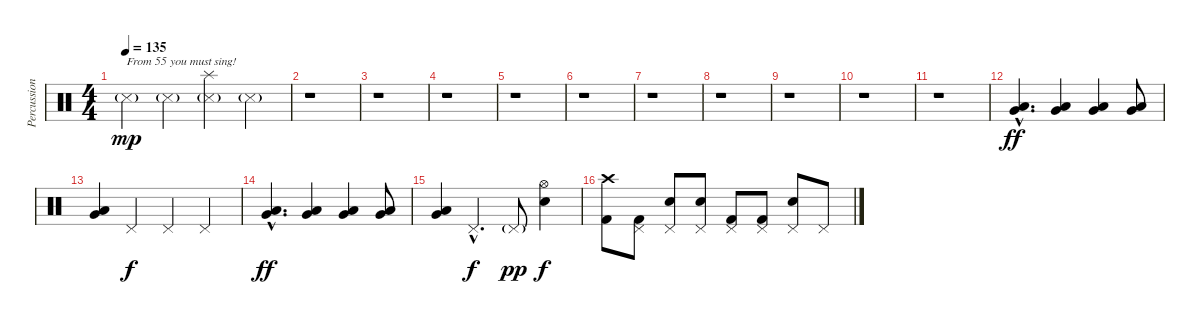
\track ("Percussion" "Percussion") {instrument percussion}
\staff {score}
\articulation defaults
\ts (4 4)
\tempo 135
\clef neutral
\ks c "Snare (side stick) 3"{g}.4{txt "From 55 you must sing!" dy mp} "Snare (side stick) 3"{g}.4
("Splash (hit)" "Snare (side stick) 3"{g}).4 "Snare (side stick) 3"{g}.4 |
r.1 |
r.1 |
r.1 |
r.1 |
r.1 |
r.1 |
r.1 |
r.1 |
r.1 |
r.1 |
("Low Tom (hit)"{hac} "Very Low Tom (hit)"{hac}).4{d dy ff} ("Low Tom (hit)" "Very Low Tom (hit)").4 ("Low Tom (hit)" "Very Low Tom (hit)").4 ("Low Tom (hit)" "Very Low Tom (hit)").8 |
("Low Tom (hit)" "Very Low Tom (hit)").4 "Pedal Hi-Hat (hit)".4{dy f} "Pedal Hi-Hat (hit)".4 "Pedal Hi-Hat (hit)".4 |
("Low Tom (hit)"{hac} "Very Low Tom (hit)"{hac}).4{d dy ff} ("Low Tom (hit)" "Very Low Tom (hit)").4 ("Low Tom (hit)" "Very Low Tom (hit)").4 ("Low Tom (hit)" "Very Low Tom (hit)").8 |
("Low Tom (hit)" "Very Low Tom (hit)").4 "Pedal Hi-Hat (hit)"{hac}.4{d dy f} "Pedal Hi-Hat (hit)"{g}.8{dy pp} ("Hi-Hat (open)" "Snare (hit) 2").4{dy f} |
("Crash high (hit)" "Kick (hit) 2").8 ("Pedal Hi-Hat (hit)" "Kick (hit) 2").8 ("Pedal Hi-Hat (hit)" "Snare (hit) 2").8 ("Pedal Hi-Hat (hit)" "Snare (hit) 2").8 ("Pedal Hi-Hat (hit)" "Kick (hit) 2").8 ("Pedal Hi-Hat (hit)" "Kick (hit) 2").8 ("Pedal Hi-Hat (hit)" "Snare (hit) 2").8 "Pedal Hi-Hat (hit)".8
